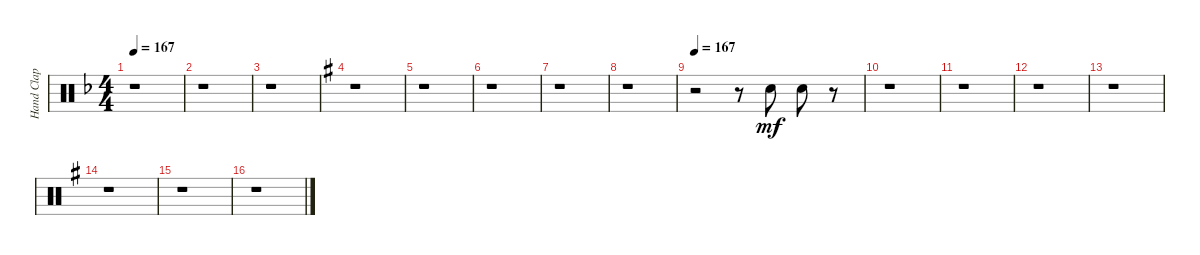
\track ("Hand Clap" "Hand Clap") {instrument percussion}
\staff {score}
\articulation defaults
\ts (4 4)
\tempo 167
\clef neutral
\ks dminor
r.1{dy mf} |
r.1 |
r.1 |
\ks eminor
r.1 |
r.1 |
r.1 |
r.1 |
r.1 |
\tempo 167
r.2 r.8 "Hand Clap (hit)".8 "Hand Clap (hit)".8 r.8 |
r.1 |
r.1 |
r.1 |
r.1 |
r.1 |
r.1 |
r.1
